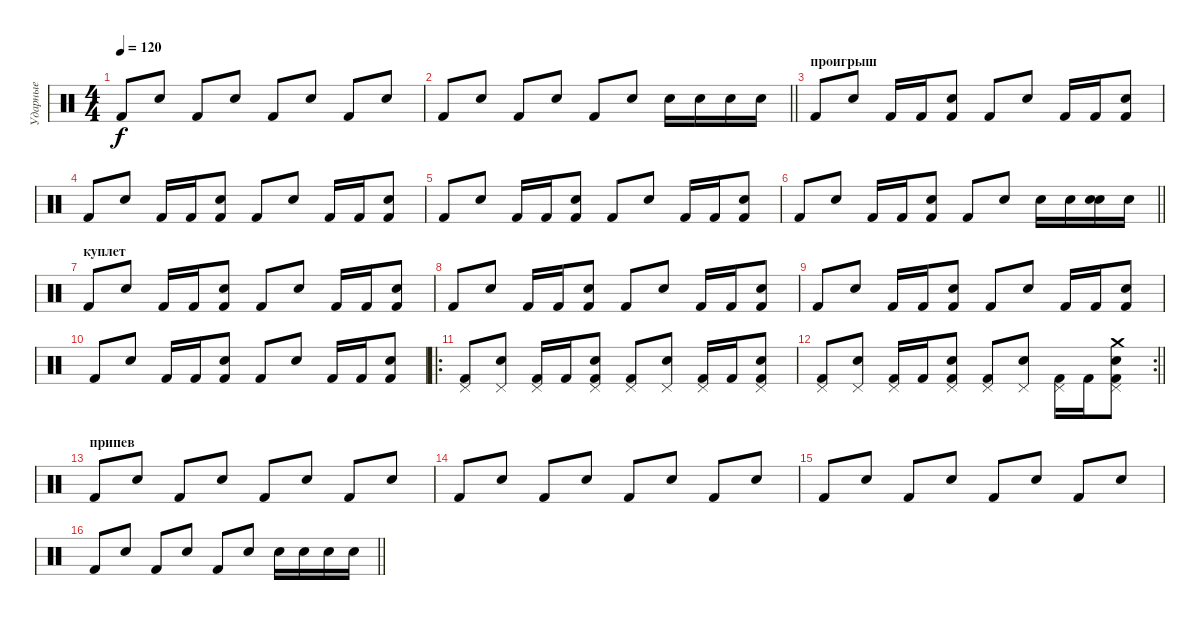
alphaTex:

\track ("Ударные" "Ударные") {instrument percussion}
\staff {score}
\articulation defaults
\ts (4 4)
\tempo 120
\clef neutral
\ks c "Kick (hit) 2".8{dy f} "Electric Snare (hit)".8 "Kick (hit) 2".8 "Electric Snare (hit)".8 "Kick (hit) 2".8 "Electric Snare (hit)".8 "Kick (hit) 2".8 "Electric Snare (hit)".8
|
\barLineRight lightlight "Kick (hit) 2".8 "Electric Snare (hit)".8 "Kick (hit) 2".8 "Electric Snare (hit)".8 "Kick (hit) 2".8 "Electric Snare (hit)".8 "Electric Snare (hit)".16 "Electric Snare (hit)".16 "Electric Snare (hit)".16 "Electric Snare (hit)".16
|
\section ("" "проигрыш")
"Kick (hit) 2".8 "Electric Snare (hit)".8 "Kick (hit) 2".16 "Kick (hit) 2".16 ("Kick (hit) 2" "Electric Snare (hit)").8 "Kick (hit) 2".8 "Electric Snare (hit)".8 "Kick (hit) 2".16 "Kick (hit) 2".16 ("Kick (hit) 2" "Electric Snare (hit)").8 |
"Kick (hit) 2".8 "Electric Snare (hit)".8 "Kick (hit) 2".16 "Kick (hit) 2".16 ("Kick (hit) 2" "Electric Snare (hit)").8 "Kick (hit) 2".8 "Electric Snare (hit)".8 "Kick (hit) 2".16 "Kick (hit) 2".16 ("Kick (hit) 2" "Electric Snare (hit)").8 |
"Kick (hit) 2".8 "Electric Snare (hit)".8 "Kick (hit) 2".16 "Kick (hit) 2".16 ("Kick (hit) 2" "Electric Snare (hit)").8 "Kick (hit) 2".8 "Electric Snare (hit)".8 "Kick (hit) 2".16 "Kick (hit) 2".16 ("Kick (hit) 2" "Electric Snare (hit)").8 |
\barLineRight lightlight "Kick (hit) 2".8 "Electric Snare (hit)".8 "Kick (hit) 2".16 "Kick (hit) 2".16
("Kick (hit) 2" "Electric Snare (hit)").8 "Kick (hit) 2".8 "Electric Snare (hit)".8 "Electric Snare (hit)".16 "Electric Snare (hit)".16 ("Electric Snare (hit)" "Electric Snare (hit)").16 "Electric Snare (hit)".16 |
\section ("" "куплет")
"Kick (hit) 2".8 "Electric Snare (hit)".8 "Kick (hit) 2".16 "Kick (hit) 2".16 ("Kick (hit) 2" "Electric Snare (hit)").8 "Kick (hit) 2".8 "Electric Snare (hit)".8 "Kick (hit) 2".16 "Kick (hit) 2".16 ("Kick (hit) 2" "Electric Snare (hit)").8 |
"Kick (hit) 2".8 "Electric Snare (hit)".8 "Kick (hit) 2".16 "Kick (hit) 2".16 ("Kick (hit) 2" "Electric Snare (hit)").8 "Kick (hit) 2".8 "Electric Snare (hit)".8 "Kick (hit) 2".16 "Kick (hit) 2".16 ("Kick (hit) 2" "Electric Snare (hit)").8 |
"Kick (hit) 2".8 "Electric Snare (hit)".8 "Kick (hit) 2".16 "Kick (hit) 2".16 ("Kick (hit) 2" "Electric Snare (hit)").8 "Kick (hit) 2".8 "Electric Snare (hit)".8 "Kick (hit) 2".16 "Kick (hit) 2".16 ("Kick (hit) 2" "Electric Snare (hit)").8 |
"Kick (hit) 2".8 "Electric Snare (hit)".8 "Kick (hit) 2".16 "Kick (hit) 2".16 ("Kick (hit) 2" "Electric Snare (hit)").8 "Kick (hit) 2".8 "Electric Snare (hit)".8 "Kick (hit) 2".16 "Kick (hit) 2".16 ("Kick (hit) 2" "Electric Snare (hit)").8 |
\ro
("Kick (hit) 2" "Pedal Hi-Hat (hit)").8 ("Pedal Hi-Hat (hit)" "Electric Snare (hit)").8 ("Kick (hit) 2" "Pedal Hi-Hat (hit)").16 "Kick (hit) 2".16 ("Kick (hit) 2" "Pedal Hi-Hat (hit)" "Electric Snare (hit)").8 ("Kick (hit) 2" "Pedal Hi-Hat (hit)").8 ("Pedal Hi-Hat (hit)" "Electric Snare (hit)").8 ("Kick (hit) 2" "Pedal Hi-Hat (hit)").16 "Kick (hit) 2".16 ("Kick (hit) 2" "Pedal Hi-Hat (hit)" "Electric Snare (hit)").8 |
\rc 2
\barLineRight lightlight
("Kick (hit) 2" "Pedal Hi-Hat (hit)").8 ("Pedal Hi-Hat (hit)" "Electric Snare (hit)").8 ("Kick (hit) 2" "Pedal Hi-Hat (hit)").16 "Kick (hit) 2".16 ("Kick (hit) 2" "Pedal Hi-Hat (hit)" "Electric Snare (hit)").8 ("Kick (hit) 2" "Pedal Hi-Hat (hit)").8 ("Pedal Hi-Hat (hit)" "Electric Snare (hit)").8 ("Kick (hit) 2" "Pedal Hi-Hat (hit)").16 "Kick (hit) 2".16 ("Kick (hit) 2" "Pedal Hi-Hat (hit)" "Electric Snare (hit)" "Crash medium (hit)").8 |
\section ("" "припев")
"Kick (hit) 2".8 "Electric Snare (hit)".8 "Kick (hit) 2".8 "Electric Snare (hit)".8 "Kick (hit) 2".8 "Electric Snare (hit)".8 "Kick (hit) 2".8 "Electric Snare (hit)".8 |
"Kick (hit) 2".8 "Electric Snare (hit)".8 "Kick (hit) 2".8 "Electric Snare (hit)".8 "Kick (hit) 2".8 "Electric Snare (hit)".8 "Kick (hit) 2".8 "Electric Snare (hit)".8 |
"Kick (hit) 2".8 "Electric Snare (hit)".8 "Kick (hit) 2".8 "Electric Snare (hit)".8 "Kick (hit) 2".8 "Electric Snare (hit)".8 "Kick (hit) 2".8 "Electric Snare (hit)".8 |
\barLineRight lightlight "Kick (hit) 2".8 "Electric Snare (hit)".8 "Kick (hit) 2".8 "Electric Snare (hit)".8 "Kick (hit) 2".8 "Electric Snare (hit)".8 "Electric Snare (hit)".16 "Electric Snare (hit)".16 "Electric Snare (hit)".16 "Electric Snare (hit)".16
